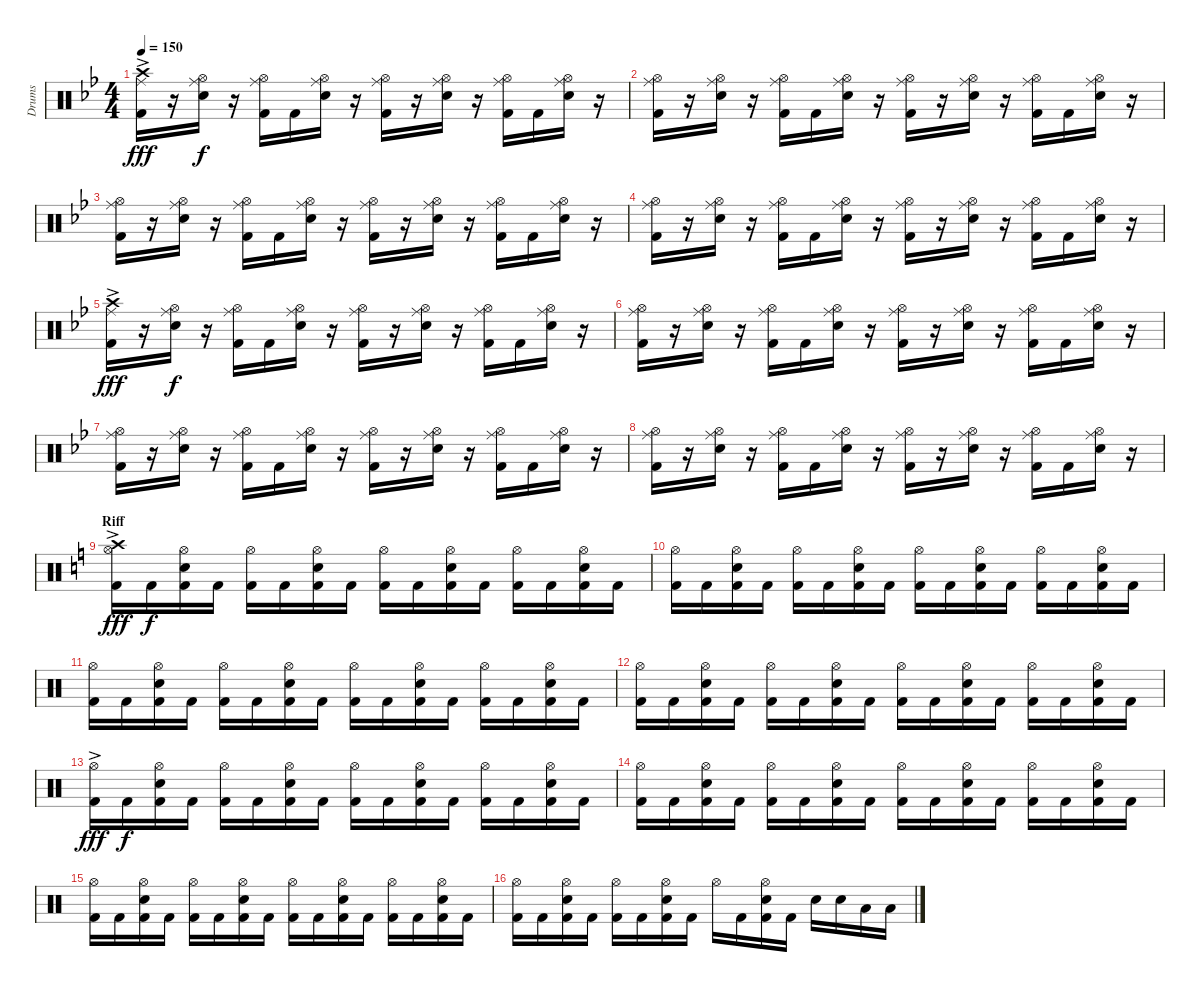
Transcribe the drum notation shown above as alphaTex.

\track ("Drums" "Drums") {instrument percussion}
\staff {score}
\articulation defaults
\ts (4 4)
\tempo 150
\clef neutral
\ks gminor
("Crash high (hit)"{ac} "Ride (middle)" "Kick (hit) 2").16{dy fff} r.16 ("Hi-Hat (open)" "Ride (middle)" "Electric Snare (hit)").16{dy f} r.16 ("Hi-Hat (open)" "Ride (middle)" "Kick (hit) 2").16 "Kick (hit) 2".16 ("Hi-Hat (open)" "Ride (middle)" "Electric Snare (hit)").16 r.16 ("Hi-Hat (open)" "Ride (middle)" "Kick (hit) 2").16 r.16 ("Hi-Hat (open)" "Ride (middle)" "Electric Snare (hit)").16 r.16 ("Hi-Hat (open)" "Ride (middle)" "Kick (hit) 2").16 "Kick (hit) 2".16 ("Hi-Hat (open)" "Ride (middle)" "Electric Snare (hit)").16 r.16 |
("Hi-Hat (open)" "Ride (middle)" "Kick (hit) 2").16 r.16 ("Hi-Hat (open)" "Ride (middle)" "Electric Snare (hit)").16 r.16 ("Hi-Hat (open)" "Ride (middle)" "Kick (hit) 2").16 "Kick (hit) 2".16 ("Hi-Hat (open)" "Ride (middle)" "Electric Snare (hit)").16 r.16 ("Hi-Hat (open)" "Ride (middle)" "Kick (hit) 2").16 r.16 ("Hi-Hat (open)" "Ride (middle)" "Electric Snare (hit)").16 r.16 ("Hi-Hat (open)" "Ride (middle)" "Kick (hit) 2").16 "Kick (hit) 2".16 ("Hi-Hat (open)" "Ride (middle)" "Electric Snare (hit)").16 r.16 |
("Hi-Hat (open)" "Ride (middle)" "Kick (hit) 2").16 r.16 ("Hi-Hat (open)" "Ride (middle)" "Electric Snare (hit)").16 r.16 ("Hi-Hat (open)" "Ride (middle)" "Kick (hit) 2").16 "Kick (hit) 2".16 ("Hi-Hat (open)" "Ride (middle)" "Electric Snare (hit)").16 r.16 ("Hi-Hat (open)" "Ride (middle)" "Kick (hit) 2").16 r.16 ("Hi-Hat (open)" "Ride (middle)" "Electric Snare (hit)").16 r.16 ("Hi-Hat (open)" "Ride (middle)" "Kick (hit) 2").16 "Kick (hit) 2".16 ("Hi-Hat (open)" "Ride (middle)" "Electric Snare (hit)").16 r.16 |
("Hi-Hat (open)" "Ride (middle)" "Kick (hit) 2").16 r.16 ("Hi-Hat (open)" "Ride (middle)" "Electric Snare (hit)").16 r.16 ("Hi-Hat (open)" "Ride (middle)" "Kick (hit) 2").16 "Kick (hit) 2".16 ("Hi-Hat (open)" "Ride (middle)" "Electric Snare (hit)").16 r.16 ("Hi-Hat (open)" "Ride (middle)" "Kick (hit) 2").16 r.16 ("Hi-Hat (open)" "Ride (middle)" "Electric Snare (hit)").16 r.16 ("Hi-Hat (open)" "Ride (middle)" "Kick (hit) 2").16 "Kick (hit) 2".16 ("Hi-Hat (open)" "Ride (middle)" "Electric Snare (hit)").16 r.16 |
("Crash high (hit)"{ac} "Ride (middle)" "Kick (hit) 2").16{dy fff} r.16 ("Hi-Hat (open)" "Ride (middle)" "Electric Snare (hit)").16{dy f} r.16 ("Hi-Hat (open)" "Ride (middle)" "Kick (hit) 2").16 "Kick (hit) 2".16 ("Hi-Hat (open)" "Ride (middle)" "Electric Snare (hit)").16 r.16 ("Hi-Hat (open)" "Ride (middle)" "Kick (hit) 2").16 r.16 ("Hi-Hat (open)" "Ride (middle)" "Electric Snare (hit)").16 r.16 ("Hi-Hat (open)" "Ride (middle)" "Kick (hit) 2").16 "Kick (hit) 2".16 ("Hi-Hat (open)" "Ride (middle)" "Electric Snare (hit)").16 r.16 |
("Hi-Hat (open)" "Ride (middle)" "Kick (hit) 2").16 r.16 ("Hi-Hat (open)" "Ride (middle)" "Electric Snare (hit)").16 r.16 ("Hi-Hat (open)" "Ride (middle)" "Kick (hit) 2").16 "Kick (hit) 2".16 ("Hi-Hat (open)" "Ride (middle)" "Electric Snare (hit)").16 r.16 ("Hi-Hat (open)" "Ride (middle)" "Kick (hit) 2").16 r.16 ("Hi-Hat (open)" "Ride (middle)" "Electric Snare (hit)").16 r.16 ("Hi-Hat (open)" "Ride (middle)" "Kick (hit) 2").16 "Kick (hit) 2".16 ("Hi-Hat (open)" "Ride (middle)" "Electric Snare (hit)").16 r.16 |
("Hi-Hat (open)" "Ride (middle)" "Kick (hit) 2").16 r.16 ("Hi-Hat (open)" "Ride (middle)" "Electric Snare (hit)").16 r.16 ("Hi-Hat (open)" "Ride (middle)" "Kick (hit) 2").16 "Kick (hit) 2".16 ("Hi-Hat (open)" "Ride (middle)" "Electric Snare (hit)").16 r.16 ("Hi-Hat (open)" "Ride (middle)" "Kick (hit) 2").16 r.16 ("Hi-Hat (open)" "Ride (middle)" "Electric Snare (hit)").16 r.16 ("Hi-Hat (open)" "Ride (middle)" "Kick (hit) 2").16 "Kick (hit) 2".16 ("Hi-Hat (open)" "Ride (middle)" "Electric Snare (hit)").16 r.16 |
("Hi-Hat (open)" "Ride (middle)" "Kick (hit) 2").16 r.16 ("Hi-Hat (open)" "Ride (middle)" "Electric Snare (hit)").16 r.16 ("Hi-Hat (open)" "Ride (middle)" "Kick (hit) 2").16 "Kick (hit) 2".16 ("Hi-Hat (open)" "Ride (middle)" "Electric Snare (hit)").16 r.16 ("Hi-Hat (open)" "Ride (middle)" "Kick (hit) 2").16 r.16 ("Hi-Hat (open)" "Ride (middle)" "Electric Snare (hit)").16 r.16 ("Hi-Hat (open)" "Ride (middle)" "Kick (hit) 2").16 "Kick (hit) 2".16 ("Hi-Hat (open)" "Ride (middle)" "Electric Snare (hit)").16 r.16 |
\section ("" "Riff")
\ks aminor
("Kick (hit) 2"{ac} "Crash high (hit)" "Hi-Hat (open)").16{dy fff} "Kick (hit) 2".16{dy f} ("Kick (hit) 2" "Electric Snare (hit)" "Hi-Hat (open)").16 "Kick (hit) 2".16 ("Kick (hit) 2" "Hi-Hat (open)").16 "Kick (hit) 2".16 ("Kick (hit) 2" "Electric Snare (hit)" "Hi-Hat (open)").16 "Kick (hit) 2".16 ("Kick (hit) 2" "Hi-Hat (open)").16 "Kick (hit) 2".16 ("Kick (hit) 2" "Electric Snare (hit)" "Hi-Hat (open)").16 "Kick (hit) 2".16 ("Kick (hit) 2" "Hi-Hat (open)").16 "Kick (hit) 2".16 ("Kick (hit) 2" "Electric Snare (hit)" "Hi-Hat (open)").16 "Kick (hit) 2".16 |
("Kick (hit) 2" "Hi-Hat (open)").16 "Kick (hit) 2".16 ("Kick (hit) 2" "Electric Snare (hit)" "Hi-Hat (open)").16 "Kick (hit) 2".16 ("Kick (hit) 2" "Hi-Hat (open)").16 "Kick (hit) 2".16 ("Kick (hit) 2" "Electric Snare (hit)" "Hi-Hat (open)").16 "Kick (hit) 2".16 ("Kick (hit) 2" "Hi-Hat (open)").16 "Kick (hit) 2".16 ("Kick (hit) 2" "Electric Snare (hit)" "Hi-Hat (open)").16 "Kick (hit) 2".16 ("Kick (hit) 2" "Hi-Hat (open)").16 "Kick (hit) 2".16 ("Kick (hit) 2" "Electric Snare (hit)" "Hi-Hat (open)").16 "Kick (hit) 2".16 |
("Kick (hit) 2" "Hi-Hat (open)").16 "Kick (hit) 2".16 ("Kick (hit) 2" "Electric Snare (hit)" "Hi-Hat (open)").16 "Kick (hit) 2".16 ("Kick (hit) 2" "Hi-Hat (open)").16 "Kick (hit) 2".16 ("Kick (hit) 2" "Electric Snare (hit)" "Hi-Hat (open)").16 "Kick (hit) 2".16 ("Kick (hit) 2" "Hi-Hat (open)").16 "Kick (hit) 2".16 ("Kick (hit) 2" "Electric Snare (hit)" "Hi-Hat (open)").16 "Kick (hit) 2".16 ("Kick (hit) 2" "Hi-Hat (open)").16 "Kick (hit) 2".16 ("Kick (hit) 2" "Electric Snare (hit)" "Hi-Hat (open)").16 "Kick (hit) 2".16 |
("Kick (hit) 2" "Hi-Hat (open)").16 "Kick (hit) 2".16 ("Kick (hit) 2" "Electric Snare (hit)" "Hi-Hat (open)").16 "Kick (hit) 2".16 ("Kick (hit) 2" "Hi-Hat (open)").16 "Kick (hit) 2".16 ("Kick (hit) 2" "Electric Snare (hit)" "Hi-Hat (open)").16 "Kick (hit) 2".16 ("Kick (hit) 2" "Hi-Hat (open)").16 "Kick (hit) 2".16 ("Kick (hit) 2" "Electric Snare (hit)" "Hi-Hat (open)").16 "Kick (hit) 2".16 ("Kick (hit) 2" "Hi-Hat (open)").16 "Kick (hit) 2".16 ("Kick (hit) 2" "Electric Snare (hit)" "Hi-Hat (open)").16 "Kick (hit) 2".16 |
("Kick (hit) 2"{ac} "Hi-Hat (open)").16{dy fff} "Kick (hit) 2".16{dy f} ("Kick (hit) 2" "Electric Snare (hit)" "Hi-Hat (open)").16 "Kick (hit) 2".16 ("Kick (hit) 2" "Hi-Hat (open)").16 "Kick (hit) 2".16 ("Kick (hit) 2" "Electric Snare (hit)" "Hi-Hat (open)").16 "Kick (hit) 2".16 ("Kick (hit) 2" "Hi-Hat (open)").16 "Kick (hit) 2".16 ("Kick (hit) 2" "Electric Snare (hit)" "Hi-Hat (open)").16 "Kick (hit) 2".16 ("Kick (hit) 2" "Hi-Hat (open)").16 "Kick (hit) 2".16 ("Kick (hit) 2" "Electric Snare (hit)" "Hi-Hat (open)").16 "Kick (hit) 2".16 |
("Kick (hit) 2" "Hi-Hat (open)").16 "Kick (hit) 2".16 ("Kick (hit) 2" "Electric Snare (hit)" "Hi-Hat (open)").16 "Kick (hit) 2".16 ("Kick (hit) 2" "Hi-Hat (open)").16 "Kick (hit) 2".16 ("Kick (hit) 2" "Electric Snare (hit)" "Hi-Hat (open)").16 "Kick (hit) 2".16 ("Kick (hit) 2" "Hi-Hat (open)").16 "Kick (hit) 2".16 ("Kick (hit) 2" "Electric Snare (hit)" "Hi-Hat (open)").16 "Kick (hit) 2".16 ("Kick (hit) 2" "Hi-Hat (open)").16 "Kick (hit) 2".16 ("Kick (hit) 2" "Electric Snare (hit)" "Hi-Hat (open)").16 "Kick (hit) 2".16 |
("Kick (hit) 2" "Hi-Hat (open)").16 "Kick (hit) 2".16 ("Kick (hit) 2" "Electric Snare (hit)" "Hi-Hat (open)").16 "Kick (hit) 2".16 ("Kick (hit) 2" "Hi-Hat (open)").16 "Kick (hit) 2".16 ("Kick (hit) 2" "Electric Snare (hit)" "Hi-Hat (open)").16 "Kick (hit) 2".16 ("Kick (hit) 2" "Hi-Hat (open)").16 "Kick (hit) 2".16 ("Kick (hit) 2" "Electric Snare (hit)" "Hi-Hat (open)").16 "Kick (hit) 2".16 ("Kick (hit) 2" "Hi-Hat (open)").16 "Kick (hit) 2".16 ("Kick (hit) 2" "Electric Snare (hit)" "Hi-Hat (open)").16 "Kick (hit) 2".16 |
("Kick (hit) 2" "Hi-Hat (open)").16 "Kick (hit) 2".16 ("Kick (hit) 2" "Electric Snare (hit)" "Hi-Hat (open)").16 "Kick (hit) 2".16 ("Kick (hit) 2" "Hi-Hat (open)").16 "Kick (hit) 2".16 ("Kick (hit) 2" "Electric Snare (hit)" "Hi-Hat (open)").16 "Kick (hit) 2".16 "Hi-Hat (open)".16 "Kick (hit) 2".16 ("Kick (hit) 2" "Electric Snare (hit)" "Hi-Hat (open)").16 "Kick (hit) 2".16 "Electric Snare (hit)".16 "Electric Snare (hit)".16 "Low Tom (hit)".16 "Low Tom (hit)".16
